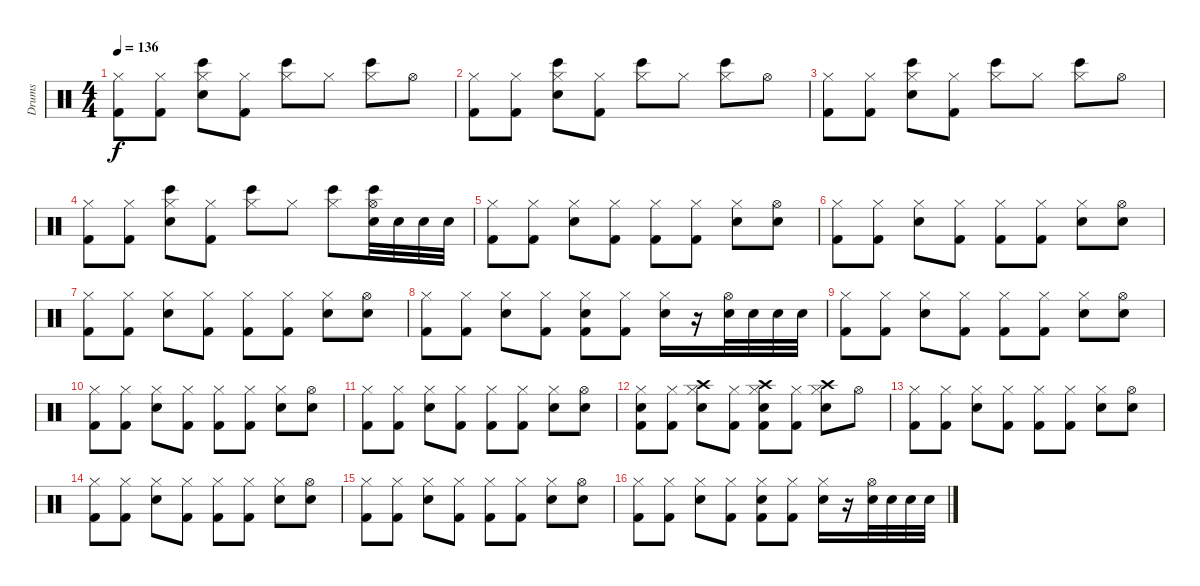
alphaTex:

\track ("Drums" "Drums") {instrument percussion}
\staff {score}
\articulation defaults
\ts (4 4)
\tempo 136
\clef neutral
\ks c
("Hi-Hat (closed)" "Kick (hit) 2").8{dy f} ("Hi-Hat (closed)" "Kick (hit) 2").8 ("Hi-Hat (closed)" "Bongo High (hit)" "Electric Snare (hit)").8 ("Hi-Hat (closed)" "Kick (hit) 2").8 ("Hi-Hat (closed)" "Bongo High (hit)").8 "Hi-Hat (closed)".8 ("Hi-Hat (closed)" "Bongo High (hit)").8 "Hi-Hat (open)".8 |
("Hi-Hat (closed)" "Kick (hit) 2").8 ("Hi-Hat (closed)" "Kick (hit) 2").8 ("Hi-Hat (closed)" "Bongo High (hit)" "Electric Snare (hit)").8 ("Hi-Hat (closed)" "Kick (hit) 2").8 ("Hi-Hat (closed)" "Bongo High (hit)").8 "Hi-Hat (closed)".8 ("Hi-Hat (closed)" "Bongo High (hit)").8 "Hi-Hat (open)".8 |
("Hi-Hat (closed)" "Kick (hit) 2").8 ("Hi-Hat (closed)" "Kick (hit) 2").8 ("Hi-Hat (closed)" "Bongo High (hit)" "Electric Snare (hit)").8 ("Hi-Hat (closed)" "Kick (hit) 2").8 ("Hi-Hat (closed)" "Bongo High (hit)").8 "Hi-Hat (closed)".8 ("Hi-Hat (closed)" "Bongo High (hit)").8 "Hi-Hat (open)".8 |
("Hi-Hat (closed)" "Kick (hit) 2").8 ("Hi-Hat (closed)" "Kick (hit) 2").8 ("Hi-Hat (closed)" "Bongo High (hit)" "Electric Snare (hit)").8 ("Hi-Hat (closed)" "Kick (hit) 2").8 ("Hi-Hat (closed)" "Bongo High (hit)").8 "Hi-Hat (closed)".8 ("Hi-Hat (closed)" "Bongo High (hit)").8 ("Hi-Hat (open)" "Bongo High (hit)" "Electric Snare (hit)").32 "Electric Snare (hit)".32 "Electric Snare (hit)".32 "Electric Snare (hit)".32 |
("Hi-Hat (closed)" "Kick (hit) 2").8 ("Hi-Hat (closed)" "Kick (hit) 2").8 ("Hi-Hat (closed)" "Electric Snare (hit)").8 ("Hi-Hat (closed)" "Kick (hit) 2").8 ("Hi-Hat (closed)" "Kick (hit) 2").8 ("Hi-Hat (closed)" "Kick (hit) 2").8 ("Hi-Hat (closed)" "Electric Snare (hit)").8 ("Hi-Hat (open)" "Electric Snare (hit)").8 |
("Hi-Hat (closed)" "Kick (hit) 2").8 ("Hi-Hat (closed)" "Kick (hit) 2").8 ("Hi-Hat (closed)" "Electric Snare (hit)").8 ("Hi-Hat (closed)" "Kick (hit) 2").8 ("Hi-Hat (closed)" "Kick (hit) 2").8 ("Hi-Hat (closed)" "Kick (hit) 2").8 ("Hi-Hat (closed)" "Electric Snare (hit)").8 ("Hi-Hat (open)" "Electric Snare (hit)").8 |
("Hi-Hat (closed)" "Kick (hit) 2").8 ("Hi-Hat (closed)" "Kick (hit) 2").8 ("Hi-Hat (closed)" "Electric Snare (hit)").8 ("Hi-Hat (closed)" "Kick (hit) 2").8 ("Hi-Hat (closed)" "Kick (hit) 2").8 ("Hi-Hat (closed)" "Kick (hit) 2").8 ("Hi-Hat (closed)" "Electric Snare (hit)").8 ("Hi-Hat (open)" "Electric Snare (hit)").8 |
("Hi-Hat (closed)" "Kick (hit) 2").8 ("Hi-Hat (closed)" "Kick (hit) 2").8 ("Hi-Hat (closed)" "Electric Snare (hit)").8 ("Hi-Hat (closed)" "Kick (hit) 2").8 ("Hi-Hat (closed)" "Electric Snare (hit)" "Kick (hit) 2").8 ("Hi-Hat (closed)" "Kick (hit) 2").8 ("Hi-Hat (closed)" "Electric Snare (hit)").16 r.16 ("Hi-Hat (open)" "Electric Snare (hit)").32 "Electric Snare (hit)".32 "Electric Snare (hit)".32 "Electric Snare (hit)".32 |
("Hi-Hat (closed)" "Kick (hit) 2").8 ("Hi-Hat (closed)" "Kick (hit) 2").8 ("Hi-Hat (closed)" "Electric Snare (hit)").8 ("Hi-Hat (closed)" "Kick (hit) 2").8 ("Hi-Hat (closed)" "Kick (hit) 2").8 ("Hi-Hat (closed)" "Kick (hit) 2").8 ("Hi-Hat (closed)" "Electric Snare (hit)").8 ("Hi-Hat (open)" "Electric Snare (hit)").8 |
("Hi-Hat (closed)" "Kick (hit) 2").8 ("Hi-Hat (closed)" "Kick (hit) 2").8 ("Hi-Hat (closed)" "Electric Snare (hit)").8 ("Hi-Hat (closed)" "Kick (hit) 2").8 ("Hi-Hat (closed)" "Kick (hit) 2").8 ("Hi-Hat (closed)" "Kick (hit) 2").8 ("Hi-Hat (closed)" "Electric Snare (hit)").8 ("Hi-Hat (open)" "Electric Snare (hit)").8 |
("Hi-Hat (closed)" "Kick (hit) 2").8 ("Hi-Hat (closed)" "Kick (hit) 2").8 ("Hi-Hat (closed)" "Electric Snare (hit)").8 ("Hi-Hat (closed)" "Kick (hit) 2").8 ("Hi-Hat (closed)" "Kick (hit) 2").8 ("Hi-Hat (closed)" "Kick (hit) 2").8 ("Hi-Hat (closed)" "Electric Snare (hit)").8 ("Hi-Hat (open)" "Electric Snare (hit)").8 |
("Hi-Hat (closed)" "Electric Snare (hit)" "Kick (hit) 2").8 ("Hi-Hat (closed)" "Kick (hit) 2").8 ("Crash high (hit)" "Hi-Hat (closed)" "Electric Snare (hit)").8 ("Hi-Hat (closed)" "Kick (hit) 2").8 ("Crash high (hit)" "Hi-Hat (closed)" "Electric Snare (hit)" "Kick (hit) 2").8 ("Hi-Hat (closed)" "Kick (hit) 2").8 ("Crash high (hit)" "Hi-Hat (closed)" "Electric Snare (hit)").8 "Hi-Hat (open)".8 |
("Hi-Hat (closed)" "Kick (hit) 2").8 ("Hi-Hat (closed)" "Kick (hit) 2").8 ("Hi-Hat (closed)" "Electric Snare (hit)").8 ("Hi-Hat (closed)" "Kick (hit) 2").8 ("Hi-Hat (closed)" "Kick (hit) 2").8 ("Hi-Hat (closed)" "Kick (hit) 2").8 ("Hi-Hat (closed)" "Electric Snare (hit)").8 ("Hi-Hat (open)" "Electric Snare (hit)").8 |
("Hi-Hat (closed)" "Kick (hit) 2").8 ("Hi-Hat (closed)" "Kick (hit) 2").8 ("Hi-Hat (closed)" "Electric Snare (hit)").8 ("Hi-Hat (closed)" "Kick (hit) 2").8 ("Hi-Hat (closed)" "Kick (hit) 2").8 ("Hi-Hat (closed)" "Kick (hit) 2").8 ("Hi-Hat (closed)" "Electric Snare (hit)").8 ("Hi-Hat (open)" "Electric Snare (hit)").8 |
("Hi-Hat (closed)" "Kick (hit) 2").8 ("Hi-Hat (closed)" "Kick (hit) 2").8 ("Hi-Hat (closed)" "Electric Snare (hit)").8 ("Hi-Hat (closed)" "Kick (hit) 2").8 ("Hi-Hat (closed)" "Kick (hit) 2").8 ("Hi-Hat (closed)" "Kick (hit) 2").8 ("Hi-Hat (closed)" "Electric Snare (hit)").8 ("Hi-Hat (open)" "Electric Snare (hit)").8 |
("Hi-Hat (closed)" "Kick (hit) 2").8 ("Hi-Hat (closed)" "Kick (hit) 2").8 ("Hi-Hat (closed)" "Electric Snare (hit)").8 ("Hi-Hat (closed)" "Kick (hit) 2").8 ("Hi-Hat (closed)" "Electric Snare (hit)" "Kick (hit) 2").8 ("Hi-Hat (closed)" "Kick (hit) 2").8 ("Hi-Hat (closed)" "Electric Snare (hit)").16 r.16 ("Hi-Hat (open)" "Electric Snare (hit)").32 "Electric Snare (hit)".32 "Electric Snare (hit)".32 "Electric Snare (hit)".32
